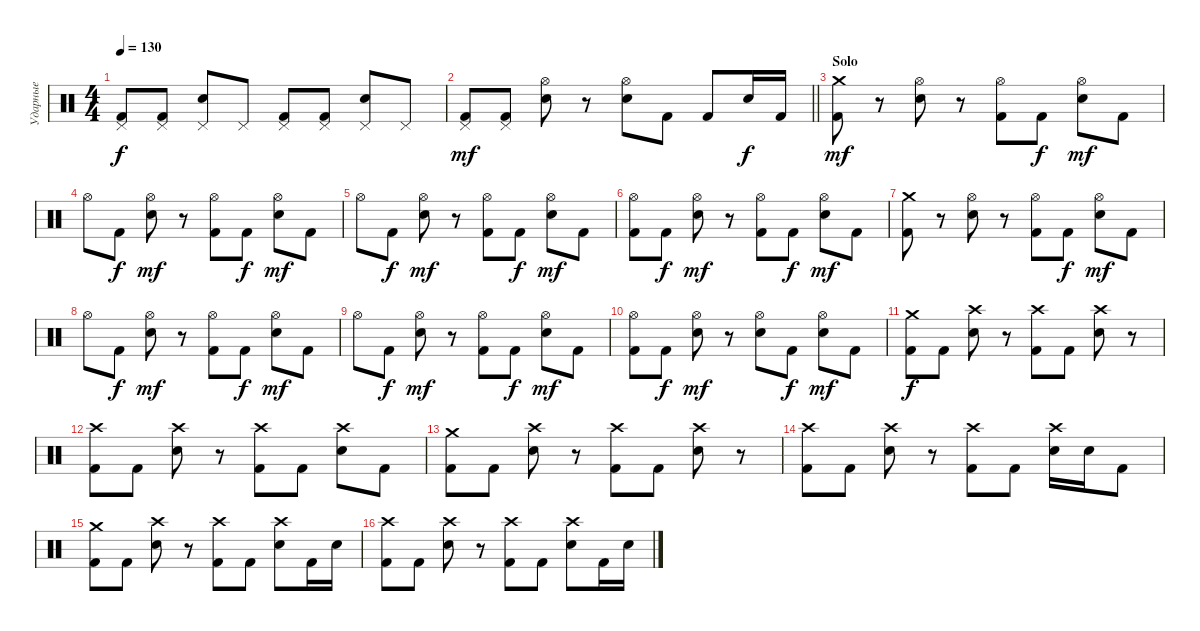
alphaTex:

\track ("Ударные" "Ударные") {instrument percussion}
\staff {score}
\articulation defaults
\ts (4 4)
\tempo 130
\clef neutral
\ks c
("Pedal Hi-Hat (hit)" "Kick (hit) 2").8{dy f} ("Pedal Hi-Hat (hit)" "Kick (hit) 2").8 ("Pedal Hi-Hat (hit)" "Electric Snare (hit)").8 "Pedal Hi-Hat (hit)".8 ("Pedal Hi-Hat (hit)" "Kick (hit) 2").8 ("Pedal Hi-Hat (hit)" "Kick (hit) 2").8 ("Pedal Hi-Hat (hit)" "Electric Snare (hit)").8 "Pedal Hi-Hat (hit)".8 |
\barLineRight lightlight
("Pedal Hi-Hat (hit)" "Kick (hit) 2").8{dy mf} ("Pedal Hi-Hat (hit)" "Kick (hit) 2").8 ("Hi-Hat (open)" "Electric Snare (hit)").8 r.8 ("Hi-Hat (open)" "Electric Snare (hit)").8 "Kick (hit) 2".8 "Kick (hit) 2".8 "Electric Snare (hit)".16{dy f} "Kick (hit) 2".16 |
\section ("" "Solo")
("Crash medium (hit)" "Kick (hit) 2").8{dy mf} r.8 ("Hi-Hat (open)" "Electric Snare (hit)").8 r.8 ("Hi-Hat (open)" "Kick (hit) 2").8 "Kick (hit) 2".8{dy f} ("Hi-Hat (open)" "Electric Snare (hit)").8{dy mf} "Kick (hit) 2".8 |
"Hi-Hat (open)".8 "Kick (hit) 2".8{dy f} ("Hi-Hat (open)" "Electric Snare (hit)").8{dy mf} r.8 ("Hi-Hat (open)" "Kick (hit) 2").8 "Kick (hit) 2".8{dy f} ("Hi-Hat (open)" "Electric Snare (hit)").8{dy mf} "Kick (hit) 2".8 |
"Hi-Hat (open)".8 "Kick (hit) 2".8{dy f} ("Hi-Hat (open)" "Electric Snare (hit)").8{dy mf} r.8 ("Hi-Hat (open)" "Kick (hit) 2").8 "Kick (hit) 2".8{dy f} ("Hi-Hat (open)" "Electric Snare (hit)").8{dy mf} "Kick (hit) 2".8 |
("Hi-Hat (open)" "Kick (hit) 2").8 "Kick (hit) 2".8{dy f} ("Hi-Hat (open)" "Electric Snare (hit)").8{dy mf} r.8 ("Hi-Hat (open)" "Kick (hit) 2").8 "Kick (hit) 2".8{dy f} ("Hi-Hat (open)" "Electric Snare (hit)").8{dy mf} "Kick (hit) 2".8 |
("Crash medium (hit)" "Kick (hit) 2").8 r.8 ("Hi-Hat (open)" "Electric Snare (hit)").8 r.8 ("Hi-Hat (open)" "Kick (hit) 2").8 "Kick (hit) 2".8{dy f} ("Hi-Hat (open)" "Electric Snare (hit)").8{dy mf} "Kick (hit) 2".8 |
"Hi-Hat (open)".8 "Kick (hit) 2".8{dy f} ("Hi-Hat (open)" "Electric Snare (hit)").8{dy mf} r.8 ("Hi-Hat (open)" "Kick (hit) 2").8 "Kick (hit) 2".8{dy f} ("Hi-Hat (open)" "Electric Snare (hit)").8{dy mf} "Kick (hit) 2".8 |
"Hi-Hat (open)".8 "Kick (hit) 2".8{dy f} ("Hi-Hat (open)" "Electric Snare (hit)").8{dy mf} r.8 ("Hi-Hat (open)" "Kick (hit) 2").8 "Kick (hit) 2".8{dy f} ("Hi-Hat (open)" "Electric Snare (hit)").8{dy mf} "Kick (hit) 2".8 |
("Hi-Hat (open)" "Kick (hit) 2").8 "Kick (hit) 2".8{dy f} ("Hi-Hat (open)" "Electric Snare (hit)").8{dy mf} r.8 ("Hi-Hat (open)" "Electric Snare (hit)").8 "Kick (hit) 2".8{dy f} ("Hi-Hat (open)" "Electric Snare (hit)").8{dy mf} "Kick (hit) 2".8 |
("Crash medium (hit)" "Kick (hit) 2").8{dy f} "Kick (hit) 2".8 ("Crash high (hit)" "Electric Snare (hit)").8 r.8 ("Crash high (hit)" "Kick (hit) 2").8 "Kick (hit) 2".8 ("Crash high (hit)" "Electric Snare (hit)").8 r.8 |
("Crash high (hit)" "Kick (hit) 2").8 "Kick (hit) 2".8 ("Crash high (hit)" "Electric Snare (hit)").8 r.8 ("Crash high (hit)" "Kick (hit) 2").8 "Kick (hit) 2".8 ("Crash high (hit)" "Electric Snare (hit)").8 "Kick (hit) 2".8 |
("Crash medium (hit)" "Kick (hit) 2").8 "Kick (hit) 2".8 ("Crash high (hit)" "Electric Snare (hit)").8 r.8 ("Crash high (hit)" "Kick (hit) 2").8 "Kick (hit) 2".8 ("Crash high (hit)" "Electric Snare (hit)").8 r.8 |
("Crash high (hit)" "Kick (hit) 2").8 "Kick (hit) 2".8 ("Crash high (hit)" "Electric Snare (hit)").8 r.8 ("Crash high (hit)" "Kick (hit) 2").8 "Kick (hit) 2".8 ("Crash high (hit)" "Electric Snare (hit)").16 "Electric Snare (hit)".16 "Kick (hit) 2".8 |
("Crash medium (hit)" "Kick (hit) 2").8 "Kick (hit) 2".8 ("Crash high (hit)" "Electric Snare (hit)").8 r.8 ("Crash high (hit)" "Kick (hit) 2").8 "Kick (hit) 2".8 ("Crash high (hit)" "Electric Snare (hit)").8 "Kick (hit) 2".16 "Electric Snare (hit)".16 |
("Crash high (hit)" "Kick (hit) 2").8 "Kick (hit) 2".8 ("Crash high (hit)" "Electric Snare (hit)").8 r.8 ("Crash high (hit)" "Kick (hit) 2").8 "Kick (hit) 2".8 ("Crash high (hit)" "Electric Snare (hit)").8 "Kick (hit) 2".16 "Electric Snare (hit)".16
